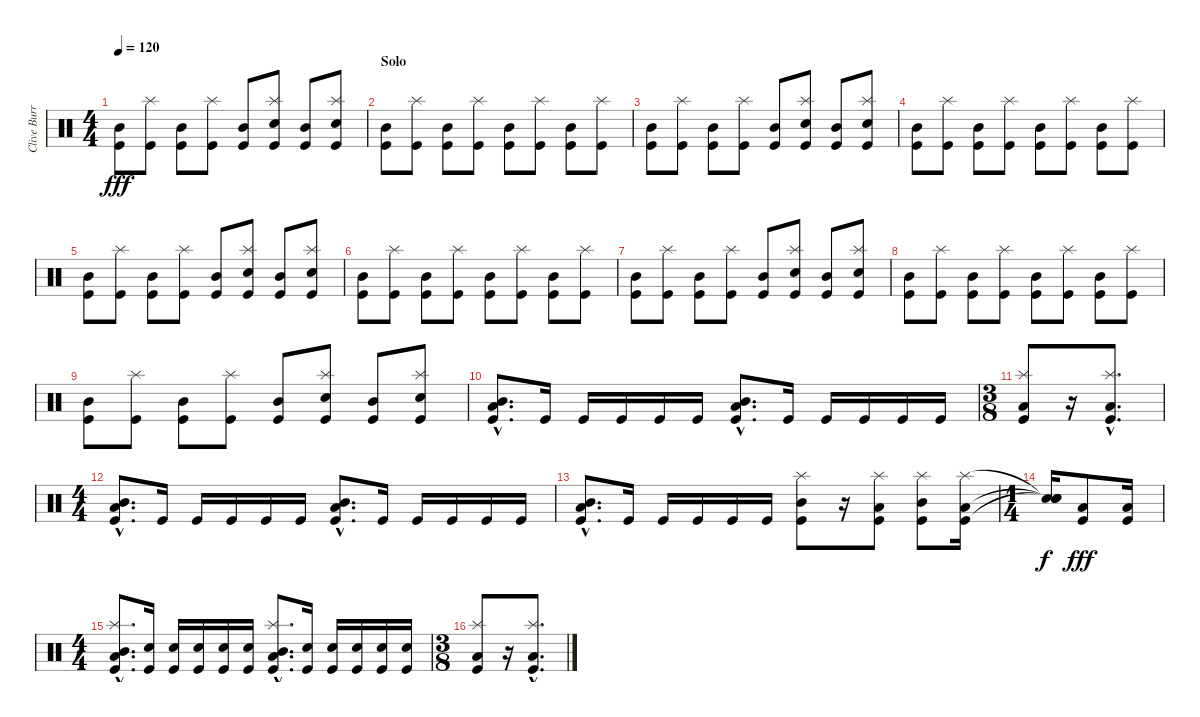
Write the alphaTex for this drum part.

\track ("Clive Burr" "Clive Burr") {instrument percussion}
\staff {score}
\articulation defaults
\ts (4 4)
\tempo 120
\clef neutral
\ks c
("Kick (hit)" "Mid Tom (hit)").8{dy fff} ("Kick (hit)" "Splash (hit)").8 ("Kick (hit)" "Mid Tom (hit)").8 ("Kick (hit)" "Splash (hit)").8 ("Kick (hit)" "Mid Tom (hit)").8 ("Kick (hit)" "Splash (hit)" "Electric Snare (hit)").8 ("Kick (hit)" "Mid Tom (hit)").8 ("Kick (hit)" "Splash (hit)" "Electric Snare (hit)").8 |
\section ("" "Solo")
("Kick (hit)" "Mid Tom (hit)").8 ("Kick (hit)" "Splash (hit)").8 ("Kick (hit)" "Mid Tom (hit)").8 ("Kick (hit)" "Splash (hit)").8 ("Kick (hit)" "Mid Tom (hit)").8 ("Kick (hit)" "Splash (hit)").8 ("Kick (hit)" "Mid Tom (hit)").8 ("Kick (hit)" "Splash (hit)").8 |
("Kick (hit)" "Mid Tom (hit)").8 ("Kick (hit)" "Splash (hit)").8 ("Kick (hit)" "Mid Tom (hit)").8 ("Kick (hit)" "Splash (hit)").8 ("Kick (hit)" "Mid Tom (hit)").8 ("Kick (hit)" "Splash (hit)" "Electric Snare (hit)").8 ("Kick (hit)" "Mid Tom (hit)").8 ("Kick (hit)" "Splash (hit)" "Electric Snare (hit)").8 |
("Kick (hit)" "Mid Tom (hit)").8 ("Kick (hit)" "Splash (hit)").8 ("Kick (hit)" "Mid Tom (hit)").8 ("Kick (hit)" "Splash (hit)").8 ("Kick (hit)" "Mid Tom (hit)").8 ("Kick (hit)" "Splash (hit)").8 ("Kick (hit)" "Mid Tom (hit)").8 ("Kick (hit)" "Splash (hit)").8 |
("Kick (hit)" "Mid Tom (hit)").8 ("Kick (hit)" "Splash (hit)").8 ("Kick (hit)" "Mid Tom (hit)").8 ("Kick (hit)" "Splash (hit)").8 ("Kick (hit)" "Mid Tom (hit)").8 ("Kick (hit)" "Splash (hit)" "Electric Snare (hit)").8 ("Kick (hit)" "Mid Tom (hit)").8 ("Kick (hit)" "Splash (hit)" "Electric Snare (hit)").8 |
("Kick (hit)" "Mid Tom (hit)").8 ("Kick (hit)" "Splash (hit)").8 ("Kick (hit)" "Mid Tom (hit)").8 ("Kick (hit)" "Splash (hit)").8 ("Kick (hit)" "Mid Tom (hit)").8 ("Kick (hit)" "Splash (hit)").8 ("Kick (hit)" "Mid Tom (hit)").8 ("Kick (hit)" "Splash (hit)").8 |
("Kick (hit)" "Mid Tom (hit)").8 ("Kick (hit)" "Splash (hit)").8 ("Kick (hit)" "Mid Tom (hit)").8 ("Kick (hit)" "Splash (hit)").8 ("Kick (hit)" "Mid Tom (hit)").8 ("Kick (hit)" "Splash (hit)" "Electric Snare (hit)").8 ("Kick (hit)" "Mid Tom (hit)").8 ("Kick (hit)" "Splash (hit)" "Electric Snare (hit)").8 |
("Kick (hit)" "Mid Tom (hit)").8 ("Kick (hit)" "Splash (hit)").8 ("Kick (hit)" "Mid Tom (hit)").8 ("Kick (hit)" "Splash (hit)").8 ("Kick (hit)" "Mid Tom (hit)").8 ("Kick (hit)" "Splash (hit)").8 ("Kick (hit)" "Mid Tom (hit)").8 ("Kick (hit)" "Splash (hit)").8 |
("Kick (hit)" "Mid Tom (hit)").8 ("Kick (hit)" "Splash (hit)").8 ("Kick (hit)" "Mid Tom (hit)").8 ("Kick (hit)" "Splash (hit)").8 ("Kick (hit)" "Mid Tom (hit)").8 ("Kick (hit)" "Splash (hit)" "Electric Snare (hit)").8 ("Kick (hit)" "Mid Tom (hit)").8 ("Kick (hit)" "Splash (hit)" "Electric Snare (hit)").8 |
("Kick (hit)"{hac} "Low Floor Tom (hit)"{hac} "Mid Tom (hit)"{hac}).8{d} "Kick (hit)".16 "Kick (hit)".16 "Kick (hit)".16 "Kick (hit)".16 "Kick (hit)".16 ("Kick (hit)"{hac} "Low Floor Tom (hit)"{hac} "Mid Tom (hit)"{hac}).8{d} "Kick (hit)".16 "Kick (hit)".16 "Kick (hit)".16 "Kick (hit)".16 "Kick (hit)".16 |
\ts (3 8)
("Kick (hit)" "Low Floor Tom (hit)" "Splash (hit)").8 r.16 ("Kick (hit)"{hac} "Low Floor Tom (hit)"{hac} "Splash (hit)"{hac}).8{d} |
\ts (4 4)
("Kick (hit)"{hac} "Low Floor Tom (hit)"{hac} "Mid Tom (hit)"{hac}).8{d} "Kick (hit)".16 "Kick (hit)".16 "Kick (hit)".16 "Kick (hit)".16 "Kick (hit)".16 ("Kick (hit)"{hac} "Low Floor Tom (hit)"{hac} "Mid Tom (hit)"{hac}).8{d} "Kick (hit)".16 "Kick (hit)".16 "Kick (hit)".16 "Kick (hit)".16 "Kick (hit)".16 |
("Kick (hit)"{hac} "Low Floor Tom (hit)"{hac} "Mid Tom (hit)"{hac}).8{d} "Kick (hit)".16 "Kick (hit)".16 "Kick (hit)".16 "Kick (hit)".16 "Kick (hit)".16 ("Kick (hit)" "Mid Tom (hit)" "Splash (hit)").8 r.16 ("Kick (hit)" "Low Floor Tom (hit)" "Splash (hit)").8 ("Kick (hit)" "Mid Tom (hit)" "Splash (hit)").8 ("Kick (hit)" "Low Floor Tom (hit)" "Splash (hit)").16 |
\ts (1 4)
("Snare (hit)"{t} "Snare (hit)"{t} "Snare (hit)"{t}).16{dy f} ("Kick (hit)" "Low Floor Tom (hit)").8{dy fff} ("Kick (hit)" "Low Floor Tom (hit)").16 |
\ts (4 4)
("Kick (hit)"{hac} "Low Floor Tom (hit)"{hac} "Mid Tom (hit)"{hac} "Splash (hit)"{hac}).8{d} ("Kick (hit)" "Electric Snare (hit)").16 ("Kick (hit)" "Electric Snare (hit)").16 ("Kick (hit)" "Electric Snare (hit)").16 ("Kick (hit)" "Electric Snare (hit)").16 ("Kick (hit)" "Electric Snare (hit)").16 ("Kick (hit)"{hac} "Low Floor Tom (hit)"{hac} "Mid Tom (hit)"{hac} "Splash (hit)"{hac}).8{d} ("Kick (hit)" "Electric Snare (hit)").16 ("Kick (hit)" "Electric Snare (hit)").16 ("Kick (hit)" "Electric Snare (hit)").16 ("Kick (hit)" "Electric Snare (hit)").16 ("Kick (hit)" "Electric Snare (hit)").16 |
\ts (3 8)
("Kick (hit)" "Low Floor Tom (hit)" "Splash (hit)").8 r.16 ("Kick (hit)"{hac} "Low Floor Tom (hit)"{hac} "Splash (hit)"{hac}).8{d}
